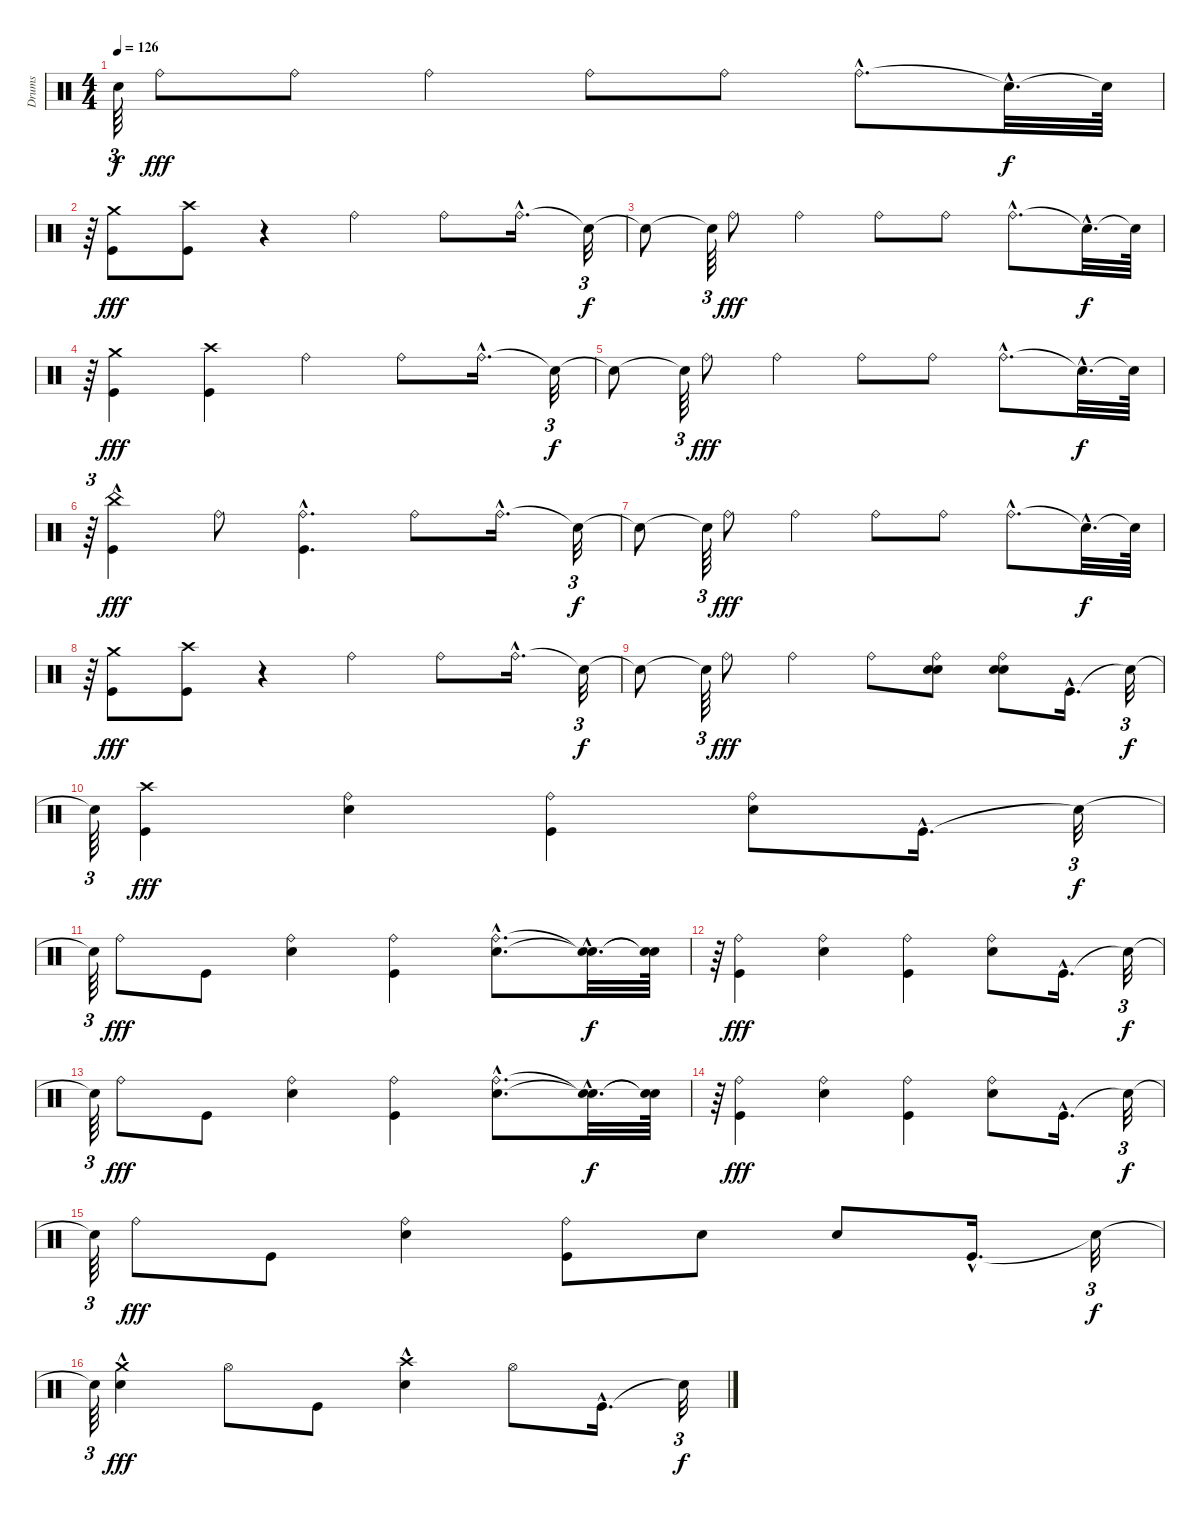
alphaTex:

\track ("Drums" "Drums") {instrument percussion}
\staff {score}
\articulation defaults
\ts (4 4)
\tempo 126
\clef neutral
\ks c "Snare (hit)"{t}.64{tu (3 2) dy f} "Ride (bell)".8{dy fff} "Ride (bell)".8 "Ride (bell)".4 "Ride (bell)".8 "Ride (bell)".8 "Ride (bell)"{hac}.8{d} "Snare (hit)"{hac t}.32{d dy f} "Snare (hit)"{t}.64
|
r.64{tu (3 2)} ("Kick (hit)" "Crash medium (hit)").8{dy fff} ("Kick (hit)" "Crash high (hit)").8 r.4 "Ride (bell)".4 "Ride (bell)".8 "Ride (bell)"{hac}.16{d} "Snare (hit)"{t}.32{tu (3 2) dy f} |
"Snare (hit)"{t}.8 "Snare (hit)"{t}.64{tu (3 2)} "Ride (bell)".8{dy fff} "Ride (bell)".4 "Ride (bell)".8 "Ride (bell)".8 "Ride (bell)"{hac}.8{d} "Snare (hit)"{hac t}.32{d dy f} "Snare (hit)"{t}.64 |
r.64{tu (3 2)} ("Kick (hit)" "Crash medium (hit)").4{dy fff} ("Kick (hit)" "Crash high (hit)").4 "Ride (bell)".4 "Ride (bell)".8 "Ride (bell)"{hac}.16{d} "Snare (hit)"{t}.32{tu (3 2) dy f} |
"Snare (hit)"{t}.8 "Snare (hit)"{t}.64{tu (3 2)} "Ride (bell)".8{dy fff} "Ride (bell)".4 "Ride (bell)".8 "Ride (bell)".8 "Ride (bell)"{hac}.8{d} "Snare (hit)"{hac t}.32{d dy f} "Snare (hit)"{t}.64 |
r.64{tu (3 2)} ("Kick (hit)"{hac} "China (hit)").4{dy fff} "Ride (bell)".8 ("Kick (hit)" "Ride (bell)"{hac}).4{d} "Ride (bell)".8 "Ride (bell)"{hac}.16{d} "Snare (hit)"{t}.32{tu (3 2) dy f} |
"Snare (hit)"{t}.8 "Snare (hit)"{t}.64{tu (3 2)} "Ride (bell)".8{dy fff} "Ride (bell)".4 "Ride (bell)".8 "Ride (bell)".8 "Ride (bell)"{hac}.8{d} "Snare (hit)"{hac t}.32{d dy f} "Snare (hit)"{t}.64 |
r.64{tu (3 2)} ("Kick (hit)" "Crash medium (hit)").8{dy fff} ("Kick (hit)" "Crash high (hit)").8 r.4 "Ride (bell)".4 "Ride (bell)".8 "Ride (bell)"{hac}.16{d} "Snare (hit)"{t}.32{tu (3 2) dy f} |
"Snare (hit)"{t}.8 "Snare (hit)"{t}.64{tu (3 2)} "Ride (bell)".8{dy fff} "Ride (bell)".4 "Ride (bell)".8 ("Snare (hit) 2" "Ride (bell)" "Snare (hit) 2").8 ("Snare (hit) 2" "Ride (bell)" "Snare (hit) 2").8 "Kick (hit)"{hac}.16{d} "Snare (hit)"{t}.32{tu (3 2) dy f} |
"Snare (hit)"{t}.64{tu (3 2)} ("Kick (hit)" "Crash high (hit)").4{dy fff} ("Snare (hit) 2" "Ride (bell)").4 ("Kick (hit)" "Ride (bell)").4 ("Snare (hit) 2" "Ride (bell)").8 "Kick (hit)"{hac}.16{d} "Snare (hit)"{t}.32{tu (3 2) dy f} |
"Snare (hit)"{t}.64{tu (3 2)} "Ride (bell)".8{dy fff} "Kick (hit)".8 ("Snare (hit) 2" "Ride (bell)").4 ("Kick (hit)" "Ride (bell)").4 ("Snare (hit) 2"{hac} "Ride (bell)"{hac}).8{d} ("Snare (hit)"{hac t} "Snare (hit)"{hac t}).32{d dy f} ("Snare (hit)"{t} "Snare (hit)"{t}).64 |
r.64{tu (3 2)} ("Kick (hit)" "Ride (bell)").4{dy fff} ("Snare (hit) 2" "Ride (bell)").4 ("Kick (hit)" "Ride (bell)").4 ("Snare (hit) 2" "Ride (bell)").8 "Kick (hit)"{hac}.16{d} "Snare (hit)"{t}.32{tu (3 2) dy f} |
"Snare (hit)"{t}.64{tu (3 2)} "Ride (bell)".8{dy fff} "Kick (hit)".8 ("Snare (hit) 2" "Ride (bell)").4 ("Kick (hit)" "Ride (bell)").4 ("Snare (hit) 2"{hac} "Ride (bell)"{hac}).8{d} ("Snare (hit)"{hac t} "Snare (hit)"{hac t}).32{d dy f} ("Snare (hit)"{t} "Snare (hit)"{t}).64 |
r.64{tu (3 2)} ("Kick (hit)" "Ride (bell)").4{dy fff} ("Snare (hit) 2" "Ride (bell)").4 ("Kick (hit)" "Ride (bell)").4 ("Snare (hit) 2" "Ride (bell)").8 "Kick (hit)"{hac}.16{d} "Snare (hit)"{t}.32{tu (3 2) dy f} |
"Snare (hit)"{t}.64{tu (3 2)} "Ride (bell)".8{dy fff} "Kick (hit)".8 ("Snare (hit) 2" "Ride (bell)").4 ("Kick (hit)" "Ride (bell)").8 "Snare (hit) 2".8 "Snare (hit) 2".8 "Kick (hit)"{hac}.16{d} "Snare (hit)"{t}.32{tu (3 2) dy f} |
"Snare (hit)"{t}.64{tu (3 2)} ("Snare (hit) 2"{hac} "Crash medium (hit)").4{dy fff} "Hi-Hat (open)".8 "Kick (hit)".8 ("Snare (hit) 2"{hac} "Crash high (hit)").4 "Hi-Hat (open)".8 "Kick (hit)"{hac}.16{d} "Snare (hit)"{t}.32{tu (3 2) dy f}
